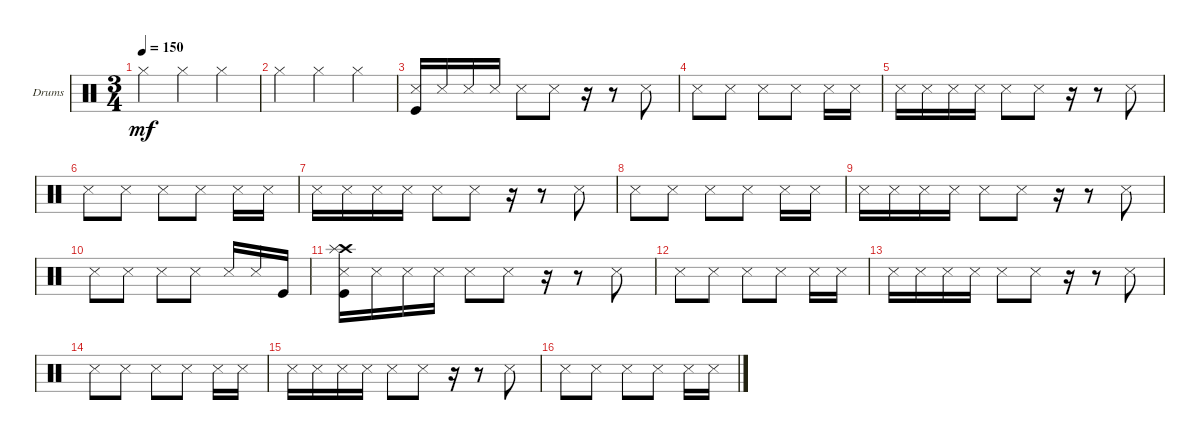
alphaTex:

\defaultSystemsLayout 4
\bracketExtendMode groupsimilarinstruments
\firstSystemTrackNameOrientation horizontal
\otherSystemsTrackNameOrientation horizontal
\track ("Scott" "Drums") {mute instrument percussion}
\staff {score}
\articulation defaults
\ts (3 4)
\tempo 150
\clef neutral
\scale
0.333333
\ks c "Hi-Hat (closed)".4{dy mf} "Hi-Hat (closed)".4 "Hi-Hat (closed)".4
|
\scale
0.333333 "Hi-Hat (closed)".4 "Hi-Hat (closed)".4 "Hi-Hat (closed)".4 |
\scale
0.333333 ("Snare (side stick) 3" "Kick (hit)").16 "Snare (side stick) 3".16 "Snare (side stick) 3".16 "Snare (side stick) 3".16 "Snare (side stick) 3".8 "Snare (side stick) 3".8 r.16 r.8 "Snare (side stick) 3".8 |
\scale
0.333333 "Snare (side stick) 3".8 "Snare (side stick) 3".8 "Snare (side stick) 3".8 "Snare (side stick) 3".8 "Snare (side stick) 3".16 "Snare (side stick) 3".16 |
\scale
0.333333 "Snare (side stick) 3".16 "Snare (side stick) 3".16 "Snare (side stick) 3".16 "Snare (side stick) 3".16 "Snare (side stick) 3".8 "Snare (side stick) 3".8 r.16 r.8 "Snare (side stick) 3".8 |
\scale
0.333333 "Snare (side stick) 3".8 "Snare (side stick) 3".8 "Snare (side stick) 3".8 "Snare (side stick) 3".8 "Snare (side stick) 3".16 "Snare (side stick) 3".16 |
\scale
0.333333 "Snare (side stick) 3".16 "Snare (side stick) 3".16 "Snare (side stick) 3".16 "Snare (side stick) 3".16 "Snare (side stick) 3".8 "Snare (side stick) 3".8 r.16 r.8 "Snare (side stick) 3".8 |
\scale
0.333333 "Snare (side stick) 3".8 "Snare (side stick) 3".8 "Snare (side stick) 3".8 "Snare (side stick) 3".8 "Snare (side stick) 3".16 "Snare (side stick) 3".16 |
\scale
0.333333 "Snare (side stick) 3".16 "Snare (side stick) 3".16 "Snare (side stick) 3".16 "Snare (side stick) 3".16 "Snare (side stick) 3".8 "Snare (side stick) 3".8 r.16 r.8 "Snare (side stick) 3".8 |
\scale
0.333333 "Snare (side stick) 3".8 "Snare (side stick) 3".8 "Snare (side stick) 3".8 "Snare (side stick) 3".8 "Snare (side stick) 3".16 "Snare (side stick) 3".16 "Kick (hit)".16 |
\scale
0.333333 ("Snare (side stick) 3" "Kick (hit)" "Crash high (hit)" "Splash (hit)").16 "Snare (side stick) 3".16 "Snare (side stick) 3".16 "Snare (side stick) 3".16 "Snare (side stick) 3".8 "Snare (side stick) 3".8 r.16 r.8 "Snare (side stick) 3".8 |
\scale
0.333333 "Snare (side stick) 3".8 "Snare (side stick) 3".8 "Snare (side stick) 3".8 "Snare (side stick) 3".8 "Snare (side stick) 3".16 "Snare (side stick) 3".16 |
\scale
0.333333 "Snare (side stick) 3".16 "Snare (side stick) 3".16 "Snare (side stick) 3".16 "Snare (side stick) 3".16 "Snare (side stick) 3".8 "Snare (side stick) 3".8 r.16 r.8 "Snare (side stick) 3".8 |
\scale
0.333333 "Snare (side stick) 3".8 "Snare (side stick) 3".8 "Snare (side stick) 3".8 "Snare (side stick) 3".8 "Snare (side stick) 3".16 "Snare (side stick) 3".16 |
\scale
0.333333 "Snare (side stick) 3".16 "Snare (side stick) 3".16 "Snare (side stick) 3".16 "Snare (side stick) 3".16 "Snare (side stick) 3".8 "Snare (side stick) 3".8 r.16 r.8 "Snare (side stick) 3".8 |
\scale
0.333333 "Snare (side stick) 3".8 "Snare (side stick) 3".8 "Snare (side stick) 3".8 "Snare (side stick) 3".8 "Snare (side stick) 3".16 "Snare (side stick) 3".16
